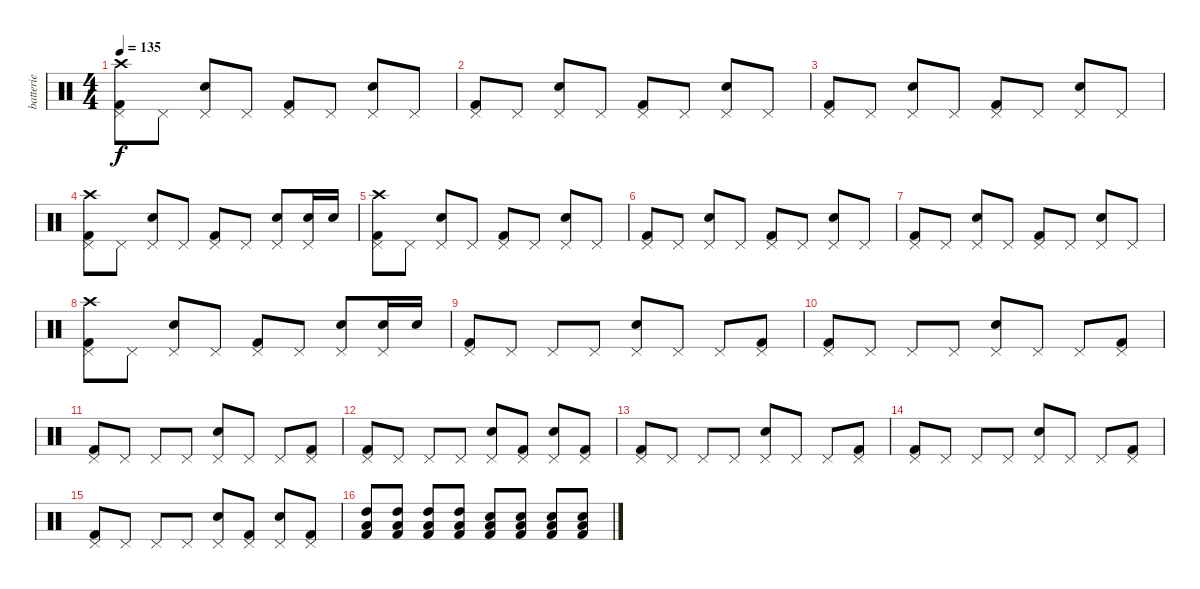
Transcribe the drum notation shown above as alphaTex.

\track ("batterie" "batterie") {instrument percussion}
\staff {score}
\articulation defaults
\ts (4 4)
\tempo 135
\clef neutral
\ks c
("Crash high (hit)" "Kick (hit) 2" "Pedal Hi-Hat (hit)").8{dy f} "Pedal Hi-Hat (hit)".8 ("Snare (hit) 2" "Pedal Hi-Hat (hit)").8 "Pedal Hi-Hat (hit)".8 ("Kick (hit) 2" "Pedal Hi-Hat (hit)").8 "Pedal Hi-Hat (hit)".8 ("Snare (hit) 2" "Pedal Hi-Hat (hit)").8 "Pedal Hi-Hat (hit)".8 |
("Kick (hit) 2" "Pedal Hi-Hat (hit)").8 "Pedal Hi-Hat (hit)".8 ("Snare (hit) 2" "Pedal Hi-Hat (hit)").8 "Pedal Hi-Hat (hit)".8 ("Kick (hit) 2" "Pedal Hi-Hat (hit)").8 "Pedal Hi-Hat (hit)".8 ("Snare (hit) 2" "Pedal Hi-Hat (hit)").8 "Pedal Hi-Hat (hit)".8 |
("Kick (hit) 2" "Pedal Hi-Hat (hit)").8 "Pedal Hi-Hat (hit)".8 ("Snare (hit) 2" "Pedal Hi-Hat (hit)").8 "Pedal Hi-Hat (hit)".8 ("Kick (hit) 2" "Pedal Hi-Hat (hit)").8 "Pedal Hi-Hat (hit)".8 ("Snare (hit) 2" "Pedal Hi-Hat (hit)").8 "Pedal Hi-Hat (hit)".8 |
("Crash high (hit)" "Kick (hit) 2" "Pedal Hi-Hat (hit)").8 "Pedal Hi-Hat (hit)".8 ("Snare (hit) 2" "Pedal Hi-Hat (hit)").8 "Pedal Hi-Hat (hit)".8 ("Kick (hit) 2" "Pedal Hi-Hat (hit)").8 "Pedal Hi-Hat (hit)".8 ("Snare (hit) 2" "Pedal Hi-Hat (hit)").8 ("Snare (hit) 2" "Pedal Hi-Hat (hit)").16 "Snare (hit) 2".16 |
("Crash high (hit)" "Kick (hit) 2" "Pedal Hi-Hat (hit)").8 "Pedal Hi-Hat (hit)".8 ("Snare (hit) 2" "Pedal Hi-Hat (hit)").8 "Pedal Hi-Hat (hit)".8 ("Kick (hit) 2" "Pedal Hi-Hat (hit)").8 "Pedal Hi-Hat (hit)".8 ("Snare (hit) 2" "Pedal Hi-Hat (hit)").8 "Pedal Hi-Hat (hit)".8 |
("Kick (hit) 2" "Pedal Hi-Hat (hit)").8 "Pedal Hi-Hat (hit)".8 ("Snare (hit) 2" "Pedal Hi-Hat (hit)").8 "Pedal Hi-Hat (hit)".8 ("Kick (hit) 2" "Pedal Hi-Hat (hit)").8 "Pedal Hi-Hat (hit)".8 ("Snare (hit) 2" "Pedal Hi-Hat (hit)").8 "Pedal Hi-Hat (hit)".8 |
("Kick (hit) 2" "Pedal Hi-Hat (hit)").8 "Pedal Hi-Hat (hit)".8 ("Snare (hit) 2" "Pedal Hi-Hat (hit)").8 "Pedal Hi-Hat (hit)".8 ("Kick (hit) 2" "Pedal Hi-Hat (hit)").8 "Pedal Hi-Hat (hit)".8 ("Snare (hit) 2" "Pedal Hi-Hat (hit)").8 "Pedal Hi-Hat (hit)".8 |
("Crash high (hit)" "Kick (hit) 2" "Pedal Hi-Hat (hit)").8 "Pedal Hi-Hat (hit)".8 ("Snare (hit) 2" "Pedal Hi-Hat (hit)").8 "Pedal Hi-Hat (hit)".8 ("Kick (hit) 2" "Pedal Hi-Hat (hit)").8 "Pedal Hi-Hat (hit)".8 ("Snare (hit) 2" "Pedal Hi-Hat (hit)").8 ("Snare (hit) 2" "Pedal Hi-Hat (hit)").16 "Snare (hit) 2".16 |
("Kick (hit) 2" "Pedal Hi-Hat (hit)").8 "Pedal Hi-Hat (hit)".8 "Pedal Hi-Hat (hit)".8 "Pedal Hi-Hat (hit)".8 ("Snare (hit) 2" "Pedal Hi-Hat (hit)").8 "Pedal Hi-Hat (hit)".8 "Pedal Hi-Hat (hit)".8 ("Kick (hit) 2" "Pedal Hi-Hat (hit)").8 |
("Kick (hit) 2" "Pedal Hi-Hat (hit)").8 "Pedal Hi-Hat (hit)".8 "Pedal Hi-Hat (hit)".8 "Pedal Hi-Hat (hit)".8 ("Snare (hit) 2" "Pedal Hi-Hat (hit)").8 "Pedal Hi-Hat (hit)".8 "Pedal Hi-Hat (hit)".8 ("Kick (hit) 2" "Pedal Hi-Hat (hit)").8 |
("Kick (hit) 2" "Pedal Hi-Hat (hit)").8 "Pedal Hi-Hat (hit)".8 "Pedal Hi-Hat (hit)".8 "Pedal Hi-Hat (hit)".8 ("Snare (hit) 2" "Pedal Hi-Hat (hit)").8 "Pedal Hi-Hat (hit)".8 "Pedal Hi-Hat (hit)".8 ("Kick (hit) 2" "Pedal Hi-Hat (hit)").8 |
("Kick (hit) 2" "Pedal Hi-Hat (hit)").8 "Pedal Hi-Hat (hit)".8 "Pedal Hi-Hat (hit)".8 "Pedal Hi-Hat (hit)".8 ("Snare (hit) 2" "Pedal Hi-Hat (hit)").8 ("Kick (hit) 2" "Pedal Hi-Hat (hit)").8 ("Snare (hit) 2" "Pedal Hi-Hat (hit)").8 ("Kick (hit) 2" "Pedal Hi-Hat (hit)").8 |
("Kick (hit) 2" "Pedal Hi-Hat (hit)").8 "Pedal Hi-Hat (hit)".8 "Pedal Hi-Hat (hit)".8 "Pedal Hi-Hat (hit)".8 ("Snare (hit) 2" "Pedal Hi-Hat (hit)").8 "Pedal Hi-Hat (hit)".8 "Pedal Hi-Hat (hit)".8 ("Kick (hit) 2" "Pedal Hi-Hat (hit)").8 |
("Kick (hit) 2" "Pedal Hi-Hat (hit)").8 "Pedal Hi-Hat (hit)".8 "Pedal Hi-Hat (hit)".8 "Pedal Hi-Hat (hit)".8 ("Snare (hit) 2" "Pedal Hi-Hat (hit)").8 "Pedal Hi-Hat (hit)".8 "Pedal Hi-Hat (hit)".8 ("Kick (hit) 2" "Pedal Hi-Hat (hit)").8 |
("Kick (hit) 2" "Pedal Hi-Hat (hit)").8 "Pedal Hi-Hat (hit)".8 "Pedal Hi-Hat (hit)".8 "Pedal Hi-Hat (hit)".8 ("Snare (hit) 2" "Pedal Hi-Hat (hit)").8 ("Kick (hit) 2" "Pedal Hi-Hat (hit)").8 ("Snare (hit) 2" "Pedal Hi-Hat (hit)").8 ("Kick (hit) 2" "Pedal Hi-Hat (hit)").8 |
("Low Tom (hit)" "High Tom (hit)" "Kick (hit) 2").8 ("Low Tom (hit)" "High Tom (hit)" "Kick (hit) 2").8 ("Low Tom (hit)" "High Tom (hit)" "Kick (hit) 2").8 ("Low Tom (hit)" "High Tom (hit)" "Kick (hit) 2").8 ("Low Tom (hit)" "Snare (hit) 2" "Kick (hit) 2").8 ("Low Tom (hit)" "Snare (hit) 2" "Kick (hit) 2").8 ("Low Tom (hit)" "Snare (hit) 2" "Kick (hit) 2").8 ("Low Tom (hit)" "Snare (hit) 2" "Kick (hit) 2").8
